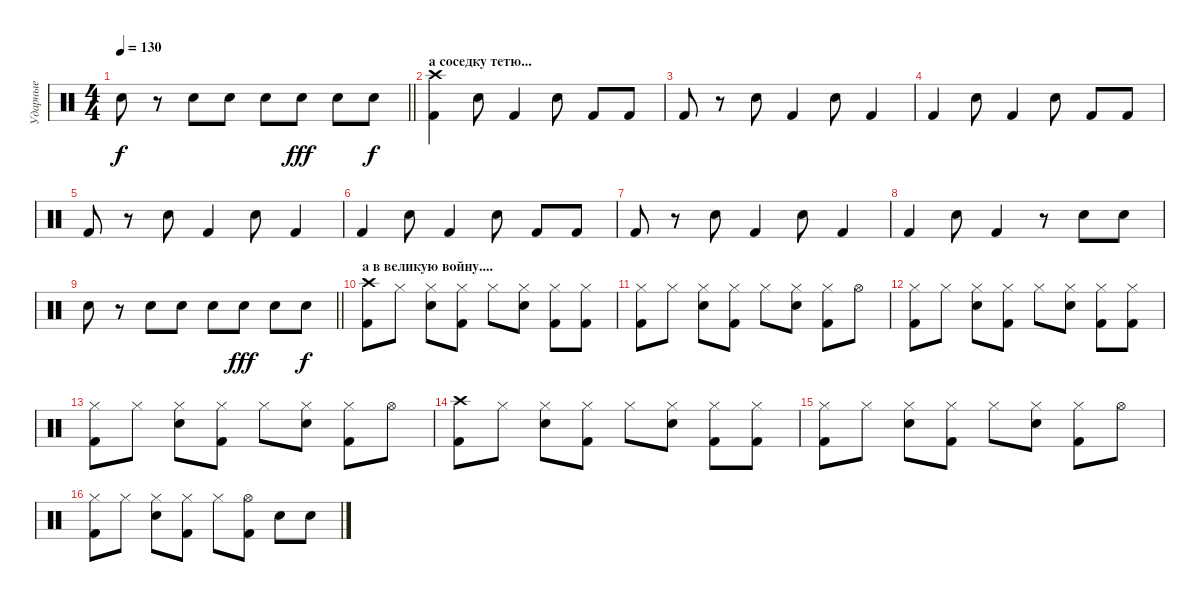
\track ("Ударные" "Ударные") {instrument percussion}
\staff {score}
\articulation defaults
\ts (4 4)
\tempo 130
\clef neutral
\barLineRight lightlight
\ks c "Snare (hit) 2".8{dy f}
r.8 "Snare (hit) 2".8 "Snare (hit) 2".8 "Snare (hit) 2".8 "Snare (hit) 2".8{dy fff} "Snare (hit) 2".8 "Snare (hit) 2".8{dy f} |
\section ("" "а соседку тетю...")
("Crash high (hit)" "Kick (hit) 2").4 "Snare (hit) 2".8 "Kick (hit) 2".4 "Snare (hit) 2".8 "Kick (hit) 2".8 "Kick (hit) 2".8 |
"Kick (hit) 2".8 r.8 "Snare (hit) 2".8 "Kick (hit) 2".4 "Snare (hit) 2".8 "Kick (hit) 2".4 |
"Kick (hit) 2".4 "Snare (hit) 2".8 "Kick (hit) 2".4 "Snare (hit) 2".8 "Kick (hit) 2".8 "Kick (hit) 2".8 |
"Kick (hit) 2".8 r.8 "Snare (hit) 2".8 "Kick (hit) 2".4 "Snare (hit) 2".8 "Kick (hit) 2".4 |
"Kick (hit) 2".4 "Snare (hit) 2".8 "Kick (hit) 2".4 "Snare (hit) 2".8 "Kick (hit) 2".8 "Kick (hit) 2".8 |
"Kick (hit) 2".8 r.8 "Snare (hit) 2".8 "Kick (hit) 2".4 "Snare (hit) 2".8 "Kick (hit) 2".4 |
"Kick (hit) 2".4 "Snare (hit) 2".8 "Kick (hit) 2".4 r.8 "Snare (hit) 2".8 "Snare (hit) 2".8 |
\barLineRight lightlight "Snare (hit) 2".8
r.8 "Snare (hit) 2".8 "Snare (hit) 2".8 "Snare (hit) 2".8 "Snare (hit) 2".8{dy fff} "Snare (hit) 2".8 "Snare (hit) 2".8{dy f} |
\section ("" "а в великую войну....")
("Crash high (hit)" "Kick (hit) 2").8 "Hi-Hat (closed)".8 ("Hi-Hat (closed)" "Snare (hit) 2").8 ("Hi-Hat (closed)" "Kick (hit) 2").8 "Hi-Hat (closed)".8 ("Hi-Hat (closed)" "Snare (hit) 2").8 ("Hi-Hat (closed)" "Kick (hit) 2").8 ("Hi-Hat (closed)" "Kick (hit) 2").8 |
("Hi-Hat (closed)" "Kick (hit) 2").8 "Hi-Hat (closed)".8 ("Hi-Hat (closed)" "Snare (hit) 2").8 ("Hi-Hat (closed)" "Kick (hit) 2").8 "Hi-Hat (closed)".8 ("Hi-Hat (closed)" "Snare (hit) 2").8 ("Hi-Hat (closed)" "Kick (hit) 2").8 "Hi-Hat (open)".8 |
("Hi-Hat (closed)" "Kick (hit) 2").8 "Hi-Hat (closed)".8 ("Hi-Hat (closed)" "Snare (hit) 2").8 ("Hi-Hat (closed)" "Kick (hit) 2").8 "Hi-Hat (closed)".8 ("Hi-Hat (closed)" "Snare (hit) 2").8 ("Hi-Hat (closed)" "Kick (hit) 2").8 ("Hi-Hat (closed)" "Kick (hit) 2").8 |
("Hi-Hat (closed)" "Kick (hit) 2").8 "Hi-Hat (closed)".8 ("Hi-Hat (closed)" "Snare (hit) 2").8 ("Hi-Hat (closed)" "Kick (hit) 2").8 "Hi-Hat (closed)".8 ("Hi-Hat (closed)" "Snare (hit) 2").8 ("Hi-Hat (closed)" "Kick (hit) 2").8 "Hi-Hat (open)".8 |
("Crash high (hit)" "Kick (hit) 2").8 "Hi-Hat (closed)".8 ("Hi-Hat (closed)" "Snare (hit) 2").8 ("Hi-Hat (closed)" "Kick (hit) 2").8 "Hi-Hat (closed)".8 ("Hi-Hat (closed)" "Snare (hit) 2").8 ("Hi-Hat (closed)" "Kick (hit) 2").8 ("Hi-Hat (closed)" "Kick (hit) 2").8 |
("Hi-Hat (closed)" "Kick (hit) 2").8 "Hi-Hat (closed)".8 ("Hi-Hat (closed)" "Snare (hit) 2").8 ("Hi-Hat (closed)" "Kick (hit) 2").8 "Hi-Hat (closed)".8 ("Hi-Hat (closed)" "Snare (hit) 2").8 ("Hi-Hat (closed)" "Kick (hit) 2").8 "Hi-Hat (open)".8 |
("Hi-Hat (closed)" "Kick (hit) 2").8 "Hi-Hat (closed)".8 ("Hi-Hat (closed)" "Snare (hit) 2").8 ("Hi-Hat (closed)" "Kick (hit) 2").8 "Hi-Hat (closed)".8 ("Hi-Hat (open)" "Kick (hit) 2").8 "Snare (hit) 2".8 "Snare (hit) 2".8
